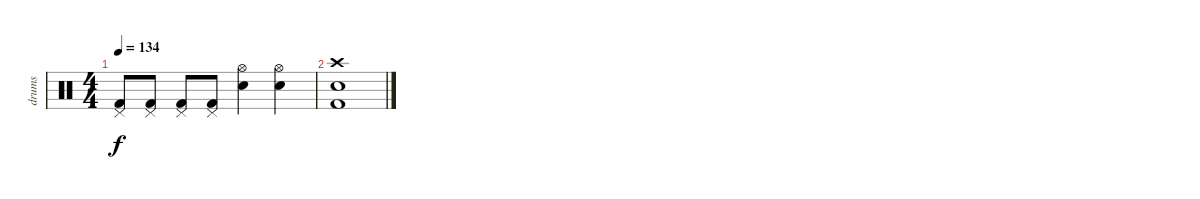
\track ("drums" "drums") {instrument percussion}
\staff {score}
\articulation defaults
\ts (4 4)
\tempo 134
\clef neutral
\ks c
("Kick (hit) 2" "Pedal Hi-Hat (hit)").8{dy f} ("Kick (hit) 2" "Pedal Hi-Hat (hit)").8 ("Kick (hit) 2" "Pedal Hi-Hat (hit)").8 ("Kick (hit) 2" "Pedal Hi-Hat (hit)").8 ("Electric Snare (hit)" "Hi-Hat (open)").4 ("Electric Snare (hit)" "Hi-Hat (open)").4 |
("Electric Snare (hit)" "Kick (hit) 2" "Crash high (hit)").1
